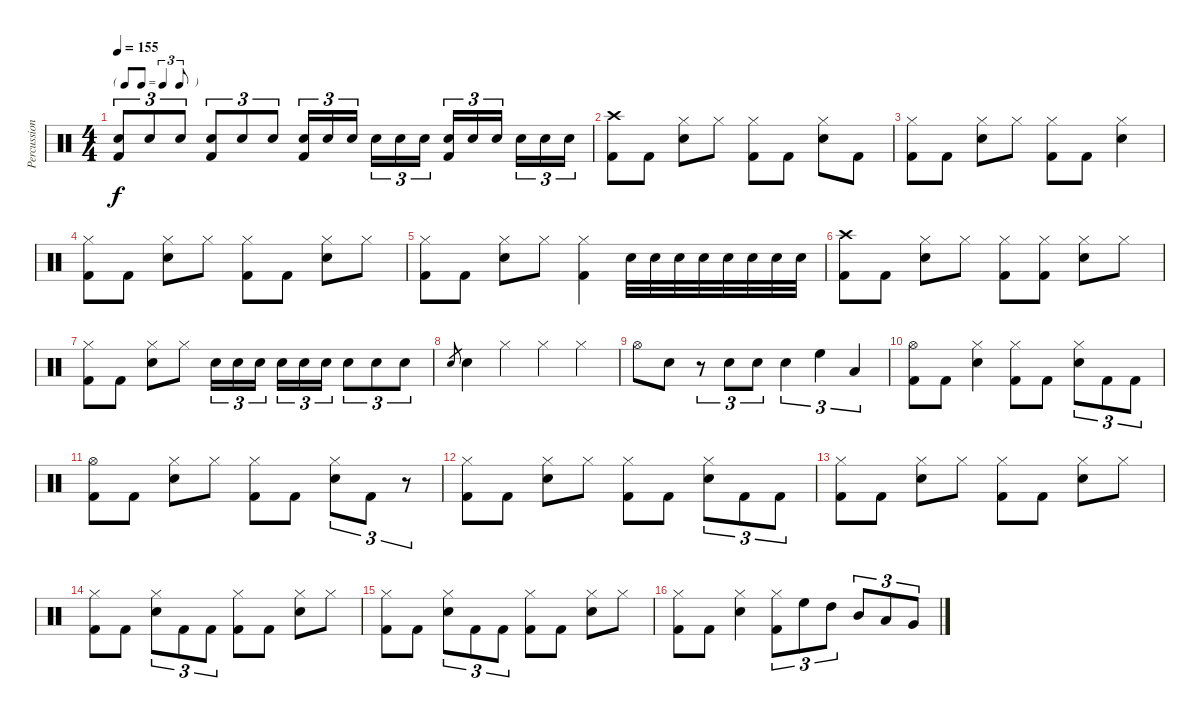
\track ("Percussion" "Percussion") {instrument percussion}
\staff {score}
\articulation defaults
\ts (4 4)
\tf triplet8th
\tempo 155
\clef neutral
\ks c
("Snare (hit) 2" "Kick (hit) 2").8{tu (3 2) dy f} "Snare (hit) 2".8{tu (3 2)} "Snare (hit) 2".8{tu (3 2)} ("Snare (hit) 2" "Kick (hit) 2").8{tu (3 2)} "Snare (hit) 2".8{tu (3 2)} "Snare (hit) 2".8{tu (3 2)} ("Snare (hit) 2" "Kick (hit) 2").16{tu (3 2)} "Snare (hit) 2".16{tu (3 2)} "Snare (hit) 2".16{tu (3 2)} "Snare (hit) 2".16{tu (3 2)} "Snare (hit) 2".16{tu (3 2)} "Snare (hit) 2".16{tu (3 2)} ("Snare (hit) 2" "Kick (hit) 2").16{tu (3 2)} "Snare (hit) 2".16{tu (3 2)} "Snare (hit) 2".16{tu (3 2)} "Snare (hit) 2".16{tu (3 2)} "Snare (hit) 2".16{tu (3 2)} "Snare (hit) 2".16{tu (3 2)} |
("Kick (hit) 2" "Crash high (hit)").8 "Kick (hit) 2".8 ("Snare (hit) 2" "Hi-Hat (closed)").8 "Hi-Hat (closed)".8 ("Kick (hit) 2" "Hi-Hat (closed)").8 "Kick (hit) 2".8 ("Snare (hit) 2" "Hi-Hat (closed)").8 "Kick (hit) 2".8 |
("Kick (hit) 2" "Hi-Hat (closed)").8 "Kick (hit) 2".8 ("Snare (hit) 2" "Hi-Hat (closed)").8 "Hi-Hat (closed)".8 ("Kick (hit) 2" "Hi-Hat (closed)").8 "Kick (hit) 2".8 ("Snare (hit) 2" "Hi-Hat (closed)").4 |
("Kick (hit) 2" "Hi-Hat (closed)").8 "Kick (hit) 2".8 ("Snare (hit) 2" "Hi-Hat (closed)").8 "Hi-Hat (closed)".8 ("Kick (hit) 2" "Hi-Hat (closed)").8 "Kick (hit) 2".8 ("Snare (hit) 2" "Hi-Hat (closed)").8 "Hi-Hat (closed)".8 |
("Kick (hit) 2" "Hi-Hat (closed)").8 "Kick (hit) 2".8 ("Snare (hit) 2" "Hi-Hat (closed)").8 "Hi-Hat (closed)".8 ("Kick (hit) 2" "Hi-Hat (closed)").4 "Snare (hit) 2".32 "Snare (hit) 2".32 "Snare (hit) 2".32 "Snare (hit) 2".32 "Snare (hit) 2".32 "Snare (hit) 2".32 "Snare (hit) 2".32 "Snare (hit) 2".32 |
("Kick (hit) 2" "Crash high (hit)").8 "Kick (hit) 2".8 ("Snare (hit) 2" "Hi-Hat (closed)").8 "Hi-Hat (closed)".8 ("Kick (hit) 2" "Hi-Hat (closed)").8 ("Kick (hit) 2" "Hi-Hat (closed)").8 ("Snare (hit) 2" "Hi-Hat (closed)").8 "Hi-Hat (closed)".8 |
("Kick (hit) 2" "Hi-Hat (closed)").8 "Kick (hit) 2".8 ("Snare (hit) 2" "Hi-Hat (closed)").8 "Hi-Hat (closed)".8 "Snare (hit) 2".16{tu (3 2)} "Snare (hit) 2".16{tu (3 2)} "Snare (hit) 2".16{tu (3 2)} "Snare (hit) 2".16{tu (3 2)} "Snare (hit) 2".16{tu (3 2)} "Snare (hit) 2".16{tu (3 2)} "Snare (hit) 2".8{tu (3 2)} "Snare (hit) 2".8{tu (3 2)} "Snare (hit) 2".8{tu (3 2)} |
"Snare (hit) 2".8{gr} "Snare (hit) 2".4 "Hi-Hat (closed)".4 "Hi-Hat (closed)".4 "Hi-Hat (closed)".4 |
"Hi-Hat (open)".8 "Snare (hit) 2".8 r.8{tu (3 2)} "Snare (hit) 2".8{tu (3 2)} "Snare (hit) 2".8{tu (3 2)} "Snare (hit) 2".4{tu (3 2)} "High Floor Tom (hit)".4{tu (3 2)} "Low Tom (hit)".4{tu (3 2)} |
("Kick (hit) 2" "Hi-Hat (open)").8 "Kick (hit) 2".8 ("Snare (hit) 2" "Hi-Hat (closed)").4 ("Kick (hit) 2" "Hi-Hat (closed)").8 "Kick (hit) 2".8 ("Snare (hit) 2" "Hi-Hat (closed)").8{tu (3 2)} "Kick (hit) 2".8{tu (3 2)} "Kick (hit) 2".8{tu (3 2)} |
("Kick (hit) 2" "Hi-Hat (open)").8 "Kick (hit) 2".8 ("Snare (hit) 2" "Hi-Hat (closed)").8 "Hi-Hat (closed)".8 ("Kick (hit) 2" "Hi-Hat (closed)").8 "Kick (hit) 2".8 ("Snare (hit) 2" "Hi-Hat (closed)").8{tu (3 2)} "Kick (hit) 2".8{tu (3 2)} r.8{tu (3 2)} |
("Kick (hit) 2" "Hi-Hat (closed)").8 "Kick (hit) 2".8 ("Snare (hit) 2" "Hi-Hat (closed)").8 "Hi-Hat (closed)".8 ("Kick (hit) 2" "Hi-Hat (closed)").8 "Kick (hit) 2".8 ("Snare (hit) 2" "Hi-Hat (closed)").8{tu (3 2)} "Kick (hit) 2".8{tu (3 2)} "Kick (hit) 2".8{tu (3 2)} |
("Kick (hit) 2" "Hi-Hat (closed)").8 "Kick (hit) 2".8 ("Snare (hit) 2" "Hi-Hat (closed)").8 "Hi-Hat (closed)".8 ("Kick (hit) 2" "Hi-Hat (closed)").8 "Kick (hit) 2".8 ("Snare (hit) 2" "Hi-Hat (closed)").8 "Hi-Hat (closed)".8 |
("Kick (hit) 2" "Hi-Hat (closed)").8 "Kick (hit) 2".8 ("Snare (hit) 2" "Hi-Hat (closed)").8{tu (3 2)} "Kick (hit) 2".8{tu (3 2)} "Kick (hit) 2".8{tu (3 2)} ("Kick (hit) 2" "Hi-Hat (closed)").8 "Kick (hit) 2".8 ("Snare (hit) 2" "Hi-Hat (closed)").8 "Hi-Hat (closed)".8 |
("Kick (hit) 2" "Hi-Hat (closed)").8 "Kick (hit) 2".8 ("Snare (hit) 2" "Hi-Hat (closed)").8{tu (3 2)} "Kick (hit) 2".8{tu (3 2)} "Kick (hit) 2".8{tu (3 2)} ("Kick (hit) 2" "Hi-Hat (closed)").8 "Kick (hit) 2".8 ("Snare (hit) 2" "Hi-Hat (closed)").8 "Hi-Hat (closed)".8 |
("Kick (hit) 2" "Hi-Hat (closed)").8 "Kick (hit) 2".8 ("Snare (hit) 2" "Hi-Hat (closed)").4 ("Kick (hit) 2" "Hi-Hat (closed)").8{tu (3 2)} "High Floor Tom (hit)".8{tu (3 2)} "High Tom (hit)".8{tu (3 2)} "Mid Tom (hit)".8{tu (3 2)} "Low Tom (hit)".8{tu (3 2)} "Very Low Tom (hit)".8{tu (3 2)}
